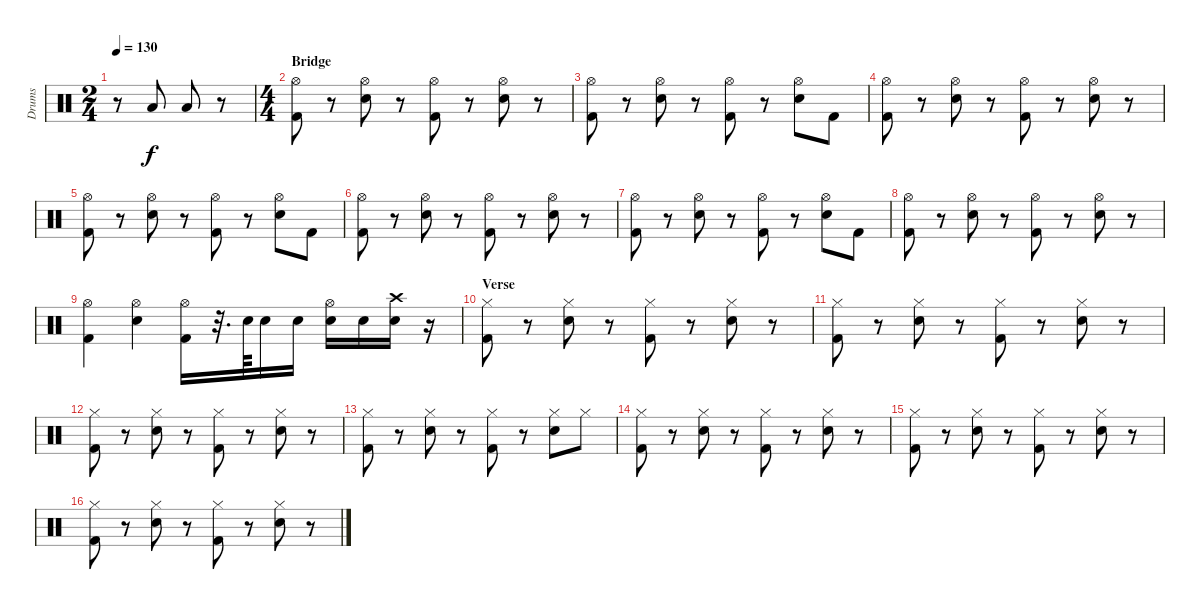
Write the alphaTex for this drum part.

\track ("Drums" "Drums") {instrument percussion}
\staff {score}
\articulation defaults
\ts (2 4)
\tempo 130
\clef neutral
\ks c
r.8{dy f} "Low Tom (hit)".8 "Low Floor Tom (hit)".8 r.8 |
\ts (4 4)
\section ("" "Bridge")
("Hi-Hat (open)" "Kick (hit) 2").8 r.8 ("Hi-Hat (open)" "Snare (hit) 2").8 r.8 ("Hi-Hat (open)" "Kick (hit) 2").8 r.8 ("Hi-Hat (open)" "Snare (hit) 2").8 r.8 |
("Hi-Hat (open)" "Kick (hit) 2").8 r.8 ("Hi-Hat (open)" "Snare (hit) 2").8 r.8 ("Hi-Hat (open)" "Kick (hit) 2").8 r.8 ("Hi-Hat (open)" "Snare (hit) 2").8 "Kick (hit) 2".8 |
("Hi-Hat (open)" "Kick (hit) 2").8 r.8 ("Hi-Hat (open)" "Snare (hit) 2").8 r.8 ("Hi-Hat (open)" "Kick (hit) 2").8 r.8 ("Hi-Hat (open)" "Snare (hit) 2").8 r.8 |
("Hi-Hat (open)" "Kick (hit) 2").8 r.8 ("Hi-Hat (open)" "Snare (hit) 2").8 r.8 ("Hi-Hat (open)" "Kick (hit) 2").8 r.8 ("Hi-Hat (open)" "Snare (hit) 2").8 "Kick (hit) 2".8 |
("Hi-Hat (open)" "Kick (hit) 2").8 r.8 ("Hi-Hat (open)" "Snare (hit) 2").8 r.8 ("Hi-Hat (open)" "Kick (hit) 2").8 r.8 ("Hi-Hat (open)" "Snare (hit) 2").8 r.8 |
("Hi-Hat (open)" "Kick (hit) 2").8 r.8 ("Hi-Hat (open)" "Snare (hit) 2").8 r.8 ("Hi-Hat (open)" "Kick (hit) 2").8 r.8 ("Hi-Hat (open)" "Snare (hit) 2").8 "Kick (hit) 2".8 |
("Hi-Hat (open)" "Kick (hit) 2").8 r.8 ("Hi-Hat (open)" "Snare (hit) 2").8 r.8 ("Hi-Hat (open)" "Kick (hit) 2").8 r.8 ("Hi-Hat (open)" "Snare (hit) 2").8 r.8 |
("Hi-Hat (open)" "Kick (hit) 2").4 ("Hi-Hat (open)" "Snare (hit) 2").4 ("Hi-Hat (open)" "Kick (hit) 2").16 r.32{d} "Snare (hit) 2".64 "Snare (hit) 2".16 "Snare (hit) 2".16 ("Snare (hit) 2" "Hi-Hat (open)").16 "Snare (hit) 2".16 ("Snare (hit) 2" "Crash high (hit)").16 r.16 |
\section ("" "Verse")
("Hi-Hat (closed)" "Kick (hit) 2").8 r.8 ("Hi-Hat (closed)" "Snare (hit) 2").8 r.8 ("Hi-Hat (closed)" "Kick (hit) 2").8 r.8 ("Hi-Hat (closed)" "Snare (hit) 2").8 r.8 |
("Hi-Hat (closed)" "Kick (hit) 2").8 r.8 ("Hi-Hat (closed)" "Snare (hit) 2").8 r.8 ("Hi-Hat (closed)" "Kick (hit) 2").8 r.8 ("Hi-Hat (closed)" "Snare (hit) 2").8 r.8 |
("Hi-Hat (closed)" "Kick (hit) 2").8 r.8 ("Hi-Hat (closed)" "Snare (hit) 2").8 r.8 ("Hi-Hat (closed)" "Kick (hit) 2").8 r.8 ("Hi-Hat (closed)" "Snare (hit) 2").8 r.8 |
("Hi-Hat (closed)" "Kick (hit) 2").8 r.8 ("Hi-Hat (closed)" "Snare (hit) 2").8 r.8 ("Hi-Hat (closed)" "Kick (hit) 2").8 r.8 ("Hi-Hat (closed)" "Snare (hit) 2").8 "Hi-Hat (closed)".8 |
("Hi-Hat (closed)" "Kick (hit) 2").8 r.8 ("Hi-Hat (closed)" "Snare (hit) 2").8 r.8 ("Hi-Hat (closed)" "Kick (hit) 2").8 r.8 ("Hi-Hat (closed)" "Snare (hit) 2").8 r.8 |
("Hi-Hat (closed)" "Kick (hit) 2").8 r.8 ("Hi-Hat (closed)" "Snare (hit) 2").8 r.8 ("Hi-Hat (closed)" "Kick (hit) 2").8 r.8 ("Hi-Hat (closed)" "Snare (hit) 2").8 r.8 |
("Hi-Hat (closed)" "Kick (hit) 2").8 r.8 ("Hi-Hat (closed)" "Snare (hit) 2").8 r.8 ("Hi-Hat (closed)" "Kick (hit) 2").8 r.8 ("Hi-Hat (closed)" "Snare (hit) 2").8 r.8
